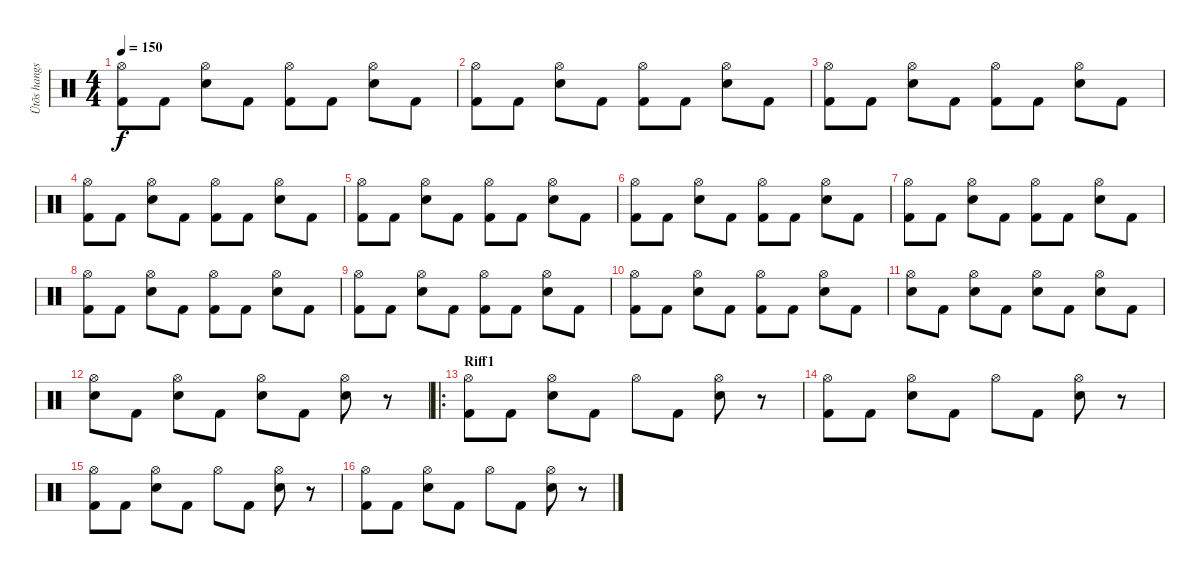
\track ("Ütõs hangszer" "Ütõs hangs") {instrument percussion}
\staff {score}
\articulation defaults
\ts (4 4)
\tempo 150
\clef neutral
\ks c
("Hi-Hat (open)" "Kick (hit) 2").8{dy f} "Kick (hit) 2".8 ("Hi-Hat (open)" "Electric Snare (hit)").8 "Kick (hit) 2".8 ("Hi-Hat (open)" "Kick (hit) 2").8 "Kick (hit) 2".8 ("Hi-Hat (open)" "Electric Snare (hit)").8 "Kick (hit) 2".8 |
("Hi-Hat (open)" "Kick (hit) 2").8 "Kick (hit) 2".8 ("Hi-Hat (open)" "Electric Snare (hit)").8 "Kick (hit) 2".8 ("Hi-Hat (open)" "Kick (hit) 2").8 "Kick (hit) 2".8 ("Hi-Hat (open)" "Electric Snare (hit)").8 "Kick (hit) 2".8 |
("Hi-Hat (open)" "Kick (hit) 2").8 "Kick (hit) 2".8 ("Hi-Hat (open)" "Electric Snare (hit)").8 "Kick (hit) 2".8 ("Hi-Hat (open)" "Kick (hit) 2").8 "Kick (hit) 2".8 ("Hi-Hat (open)" "Electric Snare (hit)").8 "Kick (hit) 2".8 |
("Hi-Hat (open)" "Kick (hit) 2").8 "Kick (hit) 2".8 ("Hi-Hat (open)" "Electric Snare (hit)").8 "Kick (hit) 2".8 ("Hi-Hat (open)" "Kick (hit) 2").8 "Kick (hit) 2".8 ("Hi-Hat (open)" "Electric Snare (hit)").8 "Kick (hit) 2".8 |
("Hi-Hat (open)" "Kick (hit) 2").8 "Kick (hit) 2".8 ("Hi-Hat (open)" "Electric Snare (hit)").8 "Kick (hit) 2".8 ("Hi-Hat (open)" "Kick (hit) 2").8 "Kick (hit) 2".8 ("Hi-Hat (open)" "Electric Snare (hit)").8 "Kick (hit) 2".8 |
("Hi-Hat (open)" "Kick (hit) 2").8 "Kick (hit) 2".8 ("Hi-Hat (open)" "Electric Snare (hit)").8 "Kick (hit) 2".8 ("Hi-Hat (open)" "Kick (hit) 2").8 "Kick (hit) 2".8 ("Hi-Hat (open)" "Electric Snare (hit)").8 "Kick (hit) 2".8 |
("Hi-Hat (open)" "Kick (hit) 2").8 "Kick (hit) 2".8 ("Hi-Hat (open)" "Electric Snare (hit)").8 "Kick (hit) 2".8 ("Hi-Hat (open)" "Kick (hit) 2").8 "Kick (hit) 2".8 ("Hi-Hat (open)" "Electric Snare (hit)").8 "Kick (hit) 2".8 |
("Hi-Hat (open)" "Kick (hit) 2").8 "Kick (hit) 2".8 ("Hi-Hat (open)" "Electric Snare (hit)").8 "Kick (hit) 2".8 ("Hi-Hat (open)" "Kick (hit) 2").8 "Kick (hit) 2".8 ("Hi-Hat (open)" "Electric Snare (hit)").8 "Kick (hit) 2".8 |
("Hi-Hat (open)" "Kick (hit) 2").8 "Kick (hit) 2".8 ("Hi-Hat (open)" "Electric Snare (hit)").8 "Kick (hit) 2".8 ("Hi-Hat (open)" "Kick (hit) 2").8 "Kick (hit) 2".8 ("Hi-Hat (open)" "Electric Snare (hit)").8 "Kick (hit) 2".8 |
("Hi-Hat (open)" "Kick (hit) 2").8 "Kick (hit) 2".8 ("Hi-Hat (open)" "Electric Snare (hit)").8 "Kick (hit) 2".8 ("Hi-Hat (open)" "Kick (hit) 2").8 "Kick (hit) 2".8 ("Hi-Hat (open)" "Electric Snare (hit)").8 "Kick (hit) 2".8 |
("Hi-Hat (open)" "Electric Snare (hit)").8 "Kick (hit) 2".8 ("Hi-Hat (open)" "Electric Snare (hit)").8 "Kick (hit) 2".8 ("Hi-Hat (open)" "Electric Snare (hit)").8 "Kick (hit) 2".8 ("Hi-Hat (open)" "Electric Snare (hit)").8 "Kick (hit) 2".8 |
\section ("" "")
("Hi-Hat (open)" "Electric Snare (hit)").8 "Kick (hit) 2".8 ("Hi-Hat (open)" "Electric Snare (hit)").8 "Kick (hit) 2".8 ("Hi-Hat (open)" "Electric Snare (hit)").8 "Kick (hit) 2".8 ("Hi-Hat (open)" "Electric Snare (hit)").8 r.8 |
\ro
\section ("" "Riff1")
("Hi-Hat (open)" "Kick (hit) 2").8 "Kick (hit) 2".8 ("Hi-Hat (open)" "Electric Snare (hit)").8 "Kick (hit) 2".8 "Hi-Hat (open)".8 "Kick (hit) 2".8 ("Hi-Hat (open)" "Electric Snare (hit)").8 r.8 |
("Hi-Hat (open)" "Kick (hit) 2").8 "Kick (hit) 2".8 ("Hi-Hat (open)" "Electric Snare (hit)").8 "Kick (hit) 2".8 "Hi-Hat (open)".8 "Kick (hit) 2".8 ("Hi-Hat (open)" "Electric Snare (hit)").8 r.8 |
("Hi-Hat (open)" "Kick (hit) 2").8 "Kick (hit) 2".8 ("Hi-Hat (open)" "Electric Snare (hit)").8 "Kick (hit) 2".8 "Hi-Hat (open)".8 "Kick (hit) 2".8 ("Hi-Hat (open)" "Electric Snare (hit)").8 r.8 |
("Hi-Hat (open)" "Kick (hit) 2").8 "Kick (hit) 2".8 ("Hi-Hat (open)" "Electric Snare (hit)").8 "Kick (hit) 2".8 "Hi-Hat (open)".8 "Kick (hit) 2".8 ("Hi-Hat (open)" "Electric Snare (hit)").8 r.8
